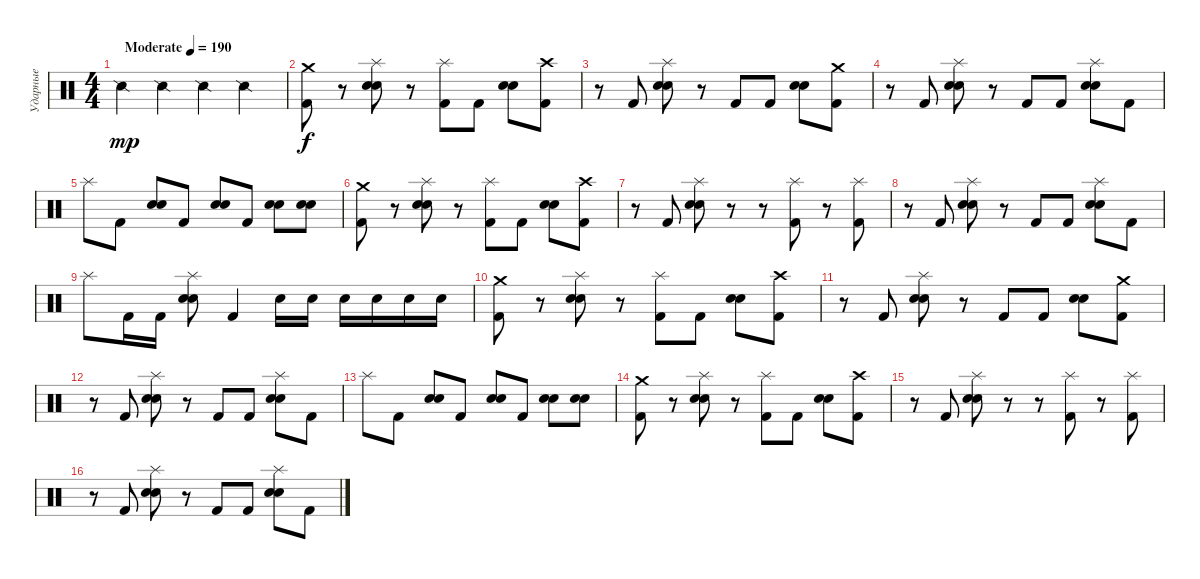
\track ("Ударные" "Ударные") {instrument percussion}
\staff {score}
\articulation defaults
\ts (4 4)
\tempo (190 "Moderate")
\clef neutral
\ks c "Snare (side stick) 2".4{dy mp} "Snare (side stick) 2".4 "Snare (side stick) 2".4 "Snare (side stick) 2".4
|
("Crash medium (hit)" "Kick (hit) 2").8{dy f} r.8 ("Splash (hit)" "Electric Snare (hit)" "Snare (hit) 2").8 r.8 ("Splash (hit)" "Kick (hit) 2").8 "Kick (hit) 2".8 ("Electric Snare (hit)" "Snare (hit) 2").8 ("Crash high (hit)" "Kick (hit) 2").8 |
r.8 "Kick (hit) 2".8 ("Splash (hit)" "Electric Snare (hit)" "Snare (hit) 2").8 r.8 "Kick (hit) 2".8 "Kick (hit) 2".8 ("Electric Snare (hit)" "Snare (hit) 2").8 ("Crash medium (hit)" "Kick (hit) 2").8 |
r.8 "Kick (hit) 2".8 ("Splash (hit)" "Electric Snare (hit)" "Snare (hit) 2").8 r.8 "Kick (hit) 2".8 "Kick (hit) 2".8 ("Splash (hit)" "Electric Snare (hit)" "Snare (hit) 2").8 "Kick (hit) 2".8 |
"Splash (hit)".8 "Kick (hit) 2".8 ("Electric Snare (hit)" "Snare (hit) 2").8 "Kick (hit) 2".8 ("Electric Snare (hit)" "Snare (hit) 2").8 "Kick (hit) 2".8 ("Electric Snare (hit)" "Snare (hit) 2").8 ("Electric Snare (hit)" "Snare (hit) 2").8 |
("Crash medium (hit)" "Kick (hit) 2").8 r.8 ("Splash (hit)" "Electric Snare (hit)" "Snare (hit) 2").8 r.8 ("Splash (hit)" "Kick (hit) 2").8 "Kick (hit) 2".8 ("Electric Snare (hit)" "Snare (hit) 2").8 ("Crash high (hit)" "Kick (hit) 2").8 |
r.8 "Kick (hit) 2".8 ("Splash (hit)" "Electric Snare (hit)" "Snare (hit) 2").8 r.8 r.8 ("Splash (hit)" "Kick (hit) 2").8 r.8 ("Splash (hit)" "Kick (hit) 2").8 |
r.8 "Kick (hit) 2".8 ("Splash (hit)" "Electric Snare (hit)" "Snare (hit) 2").8 r.8 "Kick (hit) 2".8 "Kick (hit) 2".8 ("Splash (hit)" "Electric Snare (hit)" "Snare (hit) 2").8 "Kick (hit) 2".8 |
"Splash (hit)".8 "Kick (hit) 2".16 "Kick (hit) 2".16 ("Splash (hit)" "Electric Snare (hit)" "Snare (hit) 2").8 "Kick (hit) 2".4 "Electric Snare (hit)".16 "Electric Snare (hit)".16 "Electric Snare (hit)".16 "Electric Snare (hit)".16 "Electric Snare (hit)".16 "Electric Snare (hit)".16 |
("Crash medium (hit)" "Kick (hit) 2").8 r.8 ("Splash (hit)" "Electric Snare (hit)" "Snare (hit) 2").8 r.8 ("Splash (hit)" "Kick (hit) 2").8 "Kick (hit) 2".8 ("Electric Snare (hit)" "Snare (hit) 2").8 ("Crash high (hit)" "Kick (hit) 2").8 |
r.8 "Kick (hit) 2".8 ("Splash (hit)" "Electric Snare (hit)" "Snare (hit) 2").8 r.8 "Kick (hit) 2".8 "Kick (hit) 2".8 ("Electric Snare (hit)" "Snare (hit) 2").8 ("Crash medium (hit)" "Kick (hit) 2").8 |
r.8 "Kick (hit) 2".8 ("Splash (hit)" "Electric Snare (hit)" "Snare (hit) 2").8 r.8 "Kick (hit) 2".8 "Kick (hit) 2".8 ("Splash (hit)" "Electric Snare (hit)" "Snare (hit) 2").8 "Kick (hit) 2".8 |
"Splash (hit)".8 "Kick (hit) 2".8 ("Electric Snare (hit)" "Snare (hit) 2").8 "Kick (hit) 2".8 ("Electric Snare (hit)" "Snare (hit) 2").8 "Kick (hit) 2".8 ("Electric Snare (hit)" "Snare (hit) 2").8 ("Electric Snare (hit)" "Snare (hit) 2").8 |
("Crash medium (hit)" "Kick (hit) 2").8 r.8 ("Splash (hit)" "Electric Snare (hit)" "Snare (hit) 2").8 r.8 ("Splash (hit)" "Kick (hit) 2").8 "Kick (hit) 2".8 ("Electric Snare (hit)" "Snare (hit) 2").8 ("Crash high (hit)" "Kick (hit) 2").8 |
r.8 "Kick (hit) 2".8 ("Splash (hit)" "Electric Snare (hit)" "Snare (hit) 2").8 r.8 r.8 ("Splash (hit)" "Kick (hit) 2").8 r.8 ("Splash (hit)" "Kick (hit) 2").8 |
r.8 "Kick (hit) 2".8 ("Splash (hit)" "Electric Snare (hit)" "Snare (hit) 2").8 r.8 "Kick (hit) 2".8 "Kick (hit) 2".8 ("Splash (hit)" "Electric Snare (hit)" "Snare (hit) 2").8 "Kick (hit) 2".8
